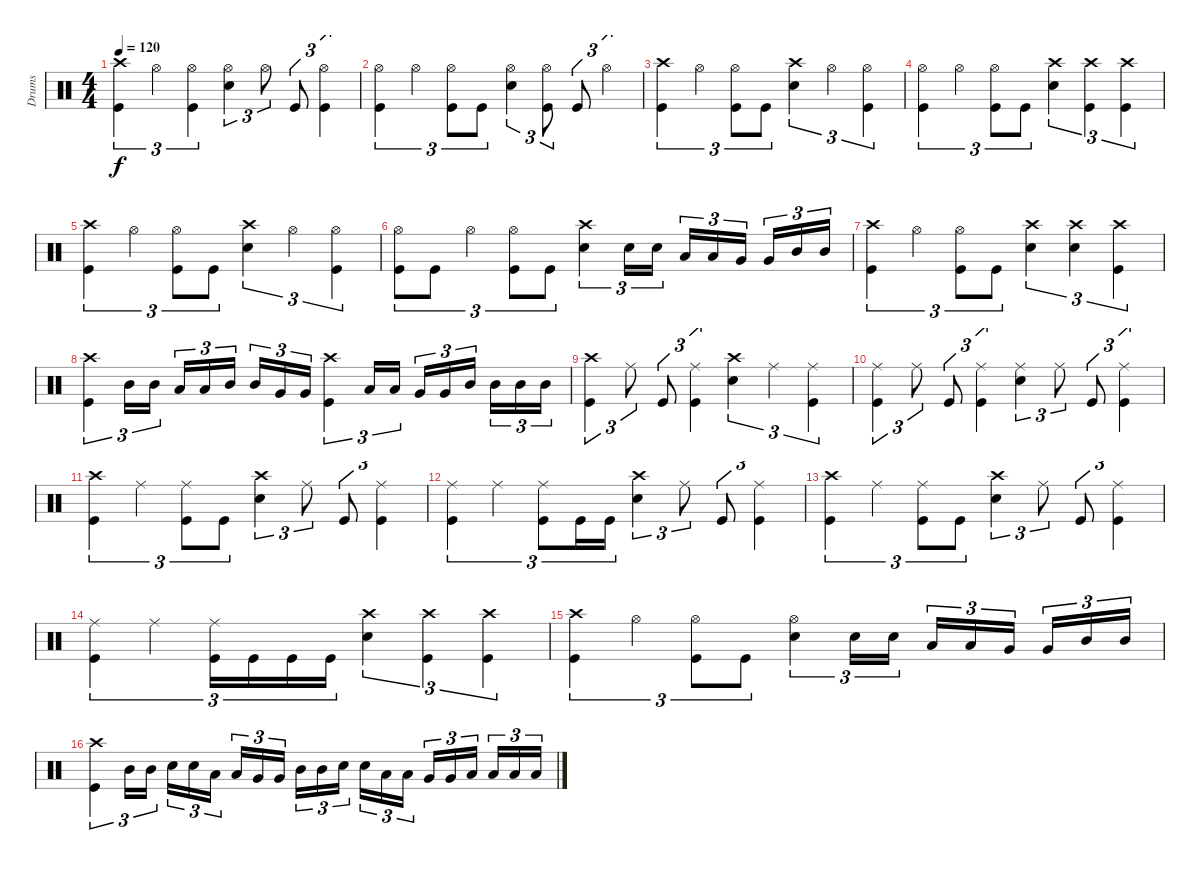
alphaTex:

\track ("Drums" "Drums") {instrument percussion}
\staff {score}
\articulation defaults
\ts (4 4)
\tempo 120
\clef neutral
\ks c
("Crash high (hit)" "Kick (hit)").4{tu (3 2) dy f} "Hi-Hat (open)".4{tu (3 2)} ("Hi-Hat (open)" "Kick (hit)").4{tu (3 2)} ("Hi-Hat (open)" "Electric Snare (hit)").4{tu (3 2)} "Hi-Hat (open)".8{tu (3 2)} "Kick (hit)".8{tu (3 2)} ("Hi-Hat (open)" "Kick (hit)").4{tu (3 2)} |
("Hi-Hat (open)" "Kick (hit)").4{tu (3 2)} "Hi-Hat (open)".4{tu (3 2)} ("Hi-Hat (open)" "Kick (hit)").8{tu (3 2)} "Kick (hit)".8{tu (3 2)} ("Hi-Hat (open)" "Electric Snare (hit)").4{tu (3 2)} ("Hi-Hat (open)" "Kick (hit)").8{tu (3 2)} "Kick (hit)".8{tu (3 2)} "Hi-Hat (open)".4{tu (3 2)} |
("Crash high (hit)" "Kick (hit)").4{tu (3 2)} "Hi-Hat (open)".4{tu (3 2)} ("Hi-Hat (open)" "Kick (hit)").8{tu (3 2)} "Kick (hit)".8{tu (3 2)} ("Crash high (hit)" "Electric Snare (hit)").4{tu (3 2)} "Hi-Hat (open)".4{tu (3 2)} ("Hi-Hat (open)" "Kick (hit)").4{tu (3 2)} |
("Hi-Hat (open)" "Kick (hit)").4{tu (3 2)} "Hi-Hat (open)".4{tu (3 2)} ("Hi-Hat (open)" "Kick (hit)").8{tu (3 2)} "Kick (hit)".8{tu (3 2)} ("Crash high (hit)" "Electric Snare (hit)").4{tu (3 2)} ("Crash high (hit)" "Kick (hit)").4{tu (3 2)} ("Crash high (hit)" "Kick (hit)").4{tu (3 2)} |
("Crash high (hit)" "Kick (hit)").4{tu (3 2)} "Hi-Hat (open)".4{tu (3 2)} ("Hi-Hat (open)" "Kick (hit)").8{tu (3 2)} "Kick (hit)".8{tu (3 2)} ("Crash high (hit)" "Electric Snare (hit)").4{tu (3 2)} "Hi-Hat (open)".4{tu (3 2)} ("Hi-Hat (open)" "Kick (hit)").4{tu (3 2)} |
("Hi-Hat (open)" "Kick (hit)").8{tu (3 2)} "Kick (hit)".8{tu (3 2)} "Hi-Hat (open)".4{tu (3 2)} ("Hi-Hat (open)" "Kick (hit)").8{tu (3 2)} "Kick (hit)".8{tu (3 2)} ("Crash high (hit)" "Electric Snare (hit)").4{tu (3 2)} "Electric Snare (hit)".16{tu (3 2)} "Electric Snare (hit)".16{tu (3 2)} "Low Tom (hit)".16{tu (3 2)} "Low Tom (hit)".16{tu (3 2)} "Very Low Tom (hit)".16{tu (3 2)} "Very Low Tom (hit)".16{tu (3 2)} "Mid Tom (hit)".16{tu (3 2)} "Mid Tom (hit)".16{tu (3 2)} |
("Crash high (hit)" "Kick (hit)").4{tu (3 2)} "Hi-Hat (open)".4{tu (3 2)} ("Hi-Hat (open)" "Kick (hit)").8{tu (3 2)} "Kick (hit)".8{tu (3 2)} ("Crash high (hit)" "Electric Snare (hit)").4{tu (3 2)} ("Crash high (hit)" "Electric Snare (hit)").4{tu (3 2)} ("Crash high (hit)" "Kick (hit)").4{tu (3 2)} |
("Crash high (hit)" "Kick (hit)").4{tu (3 2)} "Mid Tom (hit)".16{tu (3 2)} "Mid Tom (hit)".16{tu (3 2)} "Low Tom (hit)".16{tu (3 2)} "Low Tom (hit)".16{tu (3 2)} "Mid Tom (hit)".16{tu (3 2)} "Mid Tom (hit)".16{tu (3 2)} "Very Low Tom (hit)".16{tu (3 2)} "Very Low Tom (hit)".16{tu (3 2)} ("Crash high (hit)" "Kick (hit)").4{tu (3 2)} "Low Tom (hit)".16{tu (3 2)} "Low Tom (hit)".16{tu (3 2)} "Very Low Tom (hit)".16{tu (3 2)} "Very Low Tom (hit)".16{tu (3 2)} "Mid Tom (hit)".16{tu (3 2)} "Mid Tom (hit)".16{tu (3 2)} "Mid Tom (hit)".16{tu (3 2)} "Mid Tom (hit)".16{tu (3 2)} |
("Crash high (hit)" "Kick (hit)").4{tu (3 2)} "Ride (middle)".8{tu (3 2)} "Kick (hit)".8{tu (3 2)} ("Ride (middle)" "Kick (hit)").4{tu (3 2)} ("Crash high (hit)" "Electric Snare (hit)").4{tu (3 2)} "Ride (middle)".4{tu (3 2)} ("Ride (middle)" "Kick (hit)").4{tu (3 2)} |
("Ride (middle)" "Kick (hit)").4{tu (3 2)} "Ride (middle)".8{tu (3 2)} "Kick (hit)".8{tu (3 2)} ("Ride (middle)" "Kick (hit)").4{tu (3 2)} ("Ride (middle)" "Electric Snare (hit)").4{tu (3 2)} "Ride (middle)".8{tu (3 2)} "Kick (hit)".8{tu (3 2)} ("Ride (middle)" "Kick (hit)").4{tu (3 2)} |
("Crash high (hit)" "Kick (hit)").4{tu (3 2)} "Ride (middle)".4{tu (3 2)} ("Ride (middle)" "Kick (hit)").8{tu (3 2)} "Kick (hit)".8{tu (3 2)} ("Crash high (hit)" "Electric Snare (hit)").4{tu (3 2)} "Ride (middle)".8{tu (3 2)} "Kick (hit)".8{tu (3 2)} ("Ride (middle)" "Kick (hit)").4{tu (3 2)} |
("Ride (middle)" "Kick (hit)").4{tu (3 2)} "Ride (middle)".4{tu (3 2)} ("Ride (middle)" "Kick (hit)").8{tu (3 2)} "Kick (hit)".16{tu (3 2)} "Kick (hit)".16{tu (3 2)} ("Crash high (hit)" "Electric Snare (hit)").4{tu (3 2)} "Ride (middle)".8{tu (3 2)} "Kick (hit)".8{tu (3 2)} ("Ride (middle)" "Kick (hit)").4{tu (3 2)} |
("Crash high (hit)" "Kick (hit)").4{tu (3 2)} "Ride (middle)".4{tu (3 2)} ("Ride (middle)" "Kick (hit)").8{tu (3 2)} "Kick (hit)".8{tu (3 2)} ("Crash high (hit)" "Electric Snare (hit)").4{tu (3 2)} "Ride (middle)".8{tu (3 2)} "Kick (hit)".8{tu (3 2)} ("Ride (middle)" "Kick (hit)").4{tu (3 2)} |
("Ride (middle)" "Kick (hit)").4{tu (3 2)} "Ride (middle)".4{tu (3 2)} ("Ride (middle)" "Kick (hit)").16{tu (3 2)} "Kick (hit)".16{tu (3 2)} "Kick (hit)".16{tu (3 2)} "Kick (hit)".16{tu (3 2)} ("Crash high (hit)" "Electric Snare (hit)").4{tu (3 2)} ("Crash high (hit)" "Kick (hit)").4{tu (3 2)} ("Crash high (hit)" "Kick (hit)").4{tu (3 2)} |
("Crash high (hit)" "Kick (hit)").4{tu (3 2)} "Hi-Hat (open)".4{tu (3 2)} ("Hi-Hat (open)" "Kick (hit)").8{tu (3 2)} "Kick (hit)".8{tu (3 2)} ("Hi-Hat (open)" "Electric Snare (hit)").4{tu (3 2)} "Electric Snare (hit)".16{tu (3 2)} "Electric Snare (hit)".16{tu (3 2)} "Low Tom (hit)".16{tu (3 2)} "Low Tom (hit)".16{tu (3 2)} "Very Low Tom (hit)".16{tu (3 2)} "Very Low Tom (hit)".16{tu (3 2)} "Mid Tom (hit)".16{tu (3 2)} "Mid Tom (hit)".16{tu (3 2)} |
("Crash high (hit)" "Kick (hit)").4{tu (3 2)} "Mid Tom (hit)".16{tu (3 2)} "Mid Tom (hit)".16{tu (3 2)} "Electric Snare (hit)".16{tu (3 2)} "Electric Snare (hit)".16{tu (3 2)} "Low Tom (hit)".16{tu (3 2)} "Low Tom (hit)".16{tu (3 2)} "Very Low Tom (hit)".16{tu (3 2)} "Very Low Tom (hit)".16{tu (3 2)} "Mid Tom (hit)".16{tu (3 2)} "Mid Tom (hit)".16{tu (3 2)} "Electric Snare (hit)".16{tu (3 2)} "Electric Snare (hit)".16{tu (3 2)} "Low Tom (hit)".16{tu (3 2)} "Low Tom (hit)".16{tu (3 2)} "Very Low Tom (hit)".16{tu (3 2)} "Very Low Tom (hit)".16{tu (3 2)} "Low Floor Tom (hit)".16{tu (3 2)} "Low Floor Tom (hit)".16{tu (3 2)} "Low Floor Tom (hit)".16{tu (3 2)} "Low Floor Tom (hit)".16{tu (3 2)}
